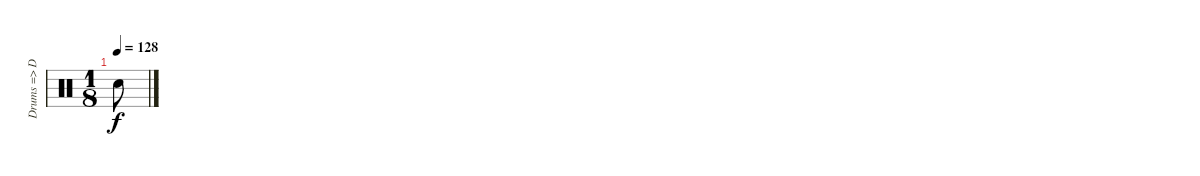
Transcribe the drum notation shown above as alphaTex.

\track ("Drums => Dave" "Drums => D") {instrument percussion}
\staff {score}
\articulation defaults
\ts (1 8)
\tempo 128
\clef neutral
\ks c "Snare (hit) 2".8{dy f}
